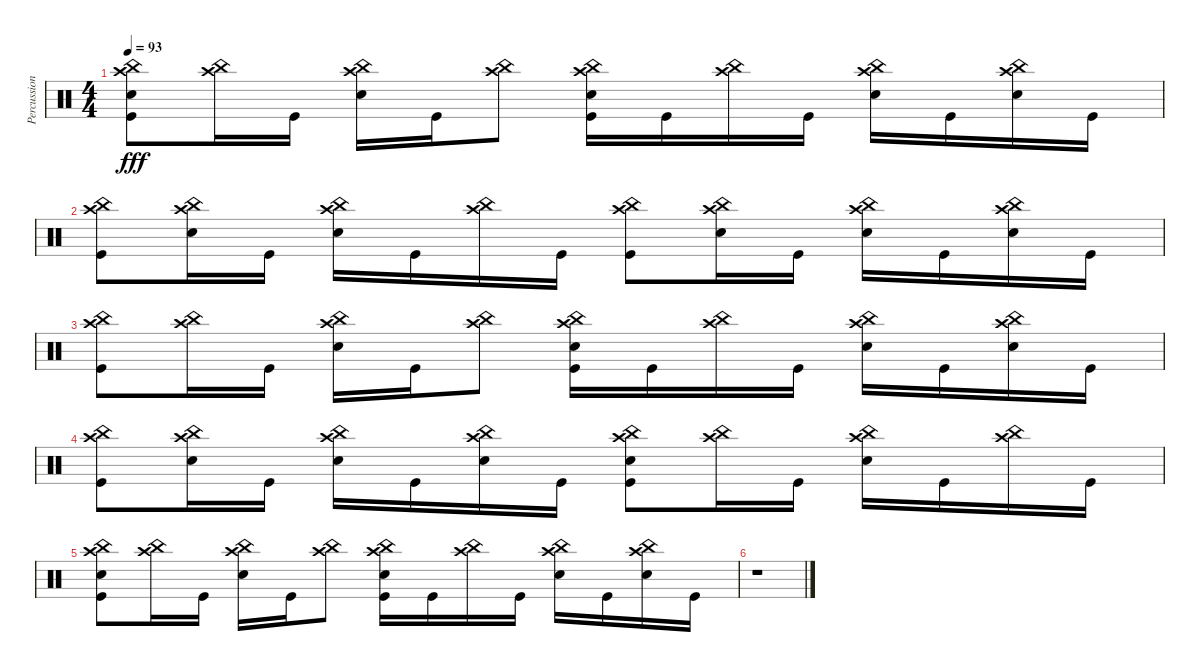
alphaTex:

\track ("Percussion" "Percussion") {instrument percussion}
\staff {score}
\articulation defaults
\ts (4 4)
\tempo 93
\clef neutral
\ks c
("China (hit)" "Crash high (hit)" "Snare (hit) 2" "Kick (hit)").8{dy fff} ("China (hit)" "Crash high (hit)").16 "Kick (hit)".16 ("China (hit)" "Crash high (hit)" "Snare (hit) 2").16 "Kick (hit)".16 ("China (hit)" "Crash high (hit)").8 ("China (hit)" "Crash high (hit)" "Snare (hit) 2" "Kick (hit)").16 "Kick (hit)".16 ("China (hit)" "Crash high (hit)").16 "Kick (hit)".16 ("China (hit)" "Crash high (hit)" "Snare (hit) 2").16 "Kick (hit)".16 ("China (hit)" "Crash high (hit)" "Snare (hit) 2").16 "Kick (hit)".16 |
("China (hit)" "Crash high (hit)" "Kick (hit)").8{volume 6} ("China (hit)" "Crash high (hit)" "Snare (hit) 2").16 "Kick (hit)".16 ("China (hit)" "Crash high (hit)" "Snare (hit) 2").16 "Kick (hit)".16 ("China (hit)" "Crash high (hit)").16 "Kick (hit)".16 ("China (hit)" "Crash high (hit)" "Kick (hit)").8 ("China (hit)" "Crash high (hit)" "Snare (hit) 2").16 "Kick (hit)".16 ("China (hit)" "Crash high (hit)" "Snare (hit) 2").16 "Kick (hit)".16 ("China (hit)" "Crash high (hit)" "Snare (hit) 2").16 "Kick (hit)".16 |
("China (hit)" "Crash high (hit)" "Kick (hit)").8 ("China (hit)" "Crash high (hit)").16 "Kick (hit)".16 ("China (hit)" "Crash high (hit)" "Snare (hit) 2").16 "Kick (hit)".16 ("China (hit)" "Crash high (hit)").8 ("China (hit)" "Crash high (hit)" "Snare (hit) 2" "Kick (hit)").16 "Kick (hit)".16 ("China (hit)" "Crash high (hit)").16 "Kick (hit)".16 ("China (hit)" "Crash high (hit)" "Snare (hit) 2").16 "Kick (hit)".16 ("China (hit)" "Crash high (hit)" "Snare (hit) 2").16 "Kick (hit)".16 |
("China (hit)" "Crash high (hit)" "Kick (hit)").8{volume 5} ("China (hit)" "Crash high (hit)" "Snare (hit) 2").16 "Kick (hit)".16 ("China (hit)" "Crash high (hit)" "Snare (hit) 2").16 "Kick (hit)".16 ("China (hit)" "Crash high (hit)" "Snare (hit) 2").16 "Kick (hit)".16 ("China (hit)" "Crash high (hit)" "Snare (hit) 2" "Kick (hit)").8 ("China (hit)" "Crash high (hit)").16 "Kick (hit)".16 ("China (hit)" "Crash high (hit)" "Snare (hit) 2").16 "Kick (hit)".16 ("China (hit)" "Crash high (hit)").16 "Kick (hit)".16 |
("China (hit)" "Crash high (hit)" "Snare (hit) 2" "Kick (hit)").8{volume 4} ("China (hit)" "Crash high (hit)").16 "Kick (hit)".16 ("China (hit)" "Crash high (hit)" "Snare (hit) 2").16 "Kick (hit)".16 ("China (hit)" "Crash high (hit)").8 ("China (hit)" "Crash high (hit)" "Snare (hit) 2" "Kick (hit)").16 "Kick (hit)".16 ("China (hit)" "Crash high (hit)").16 "Kick (hit)".16 ("China (hit)" "Crash high (hit)" "Snare (hit) 2").16 "Kick (hit)".16 ("China (hit)" "Crash high (hit)" "Snare (hit) 2").16 "Kick (hit)".16 |
r.1
